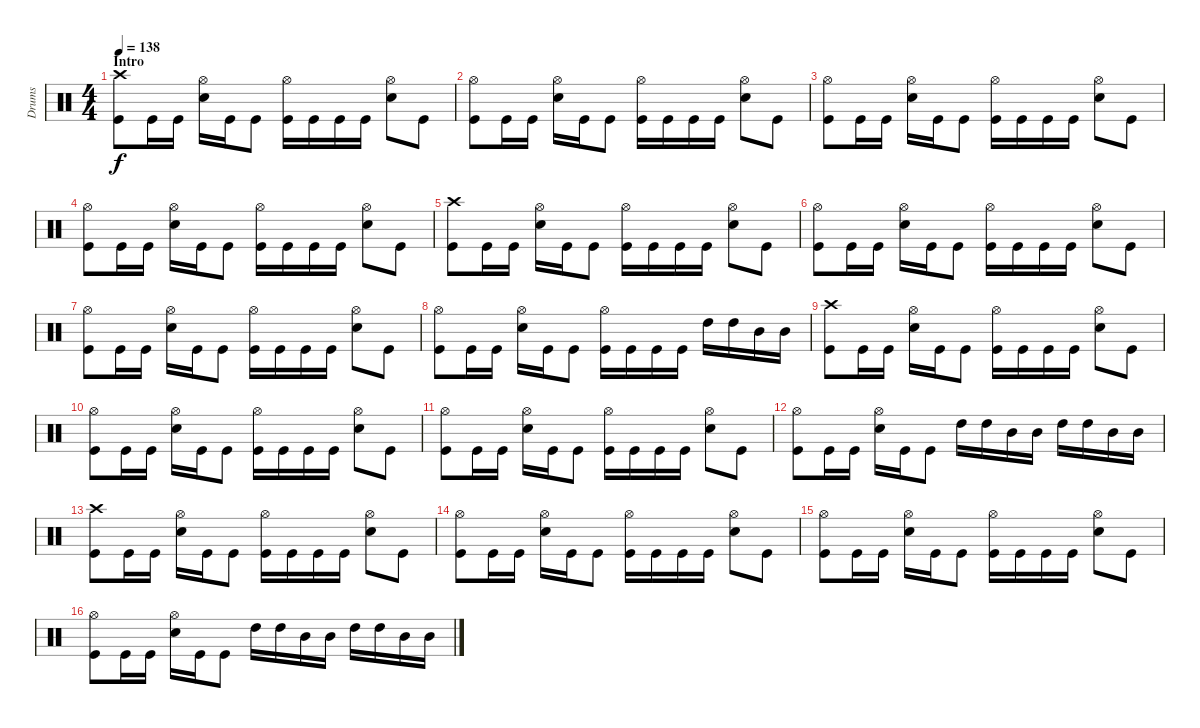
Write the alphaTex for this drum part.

\track ("Drums" "Drums") {instrument percussion}
\staff {score}
\articulation defaults
\ts (4 4)
\section ("" "Intro ")
\tempo 138
\clef neutral
\ks c
("Crash high (hit)" "Kick (hit)").8{dy f} "Kick (hit)".16 "Kick (hit)".16 ("Hi-Hat (open)" "Electric Snare (hit)").16 "Kick (hit)".16 "Kick (hit)".8 ("Hi-Hat (open)" "Kick (hit)").16 "Kick (hit)".16 "Kick (hit)".16 "Kick (hit)".16 ("Hi-Hat (open)" "Electric Snare (hit)").8 "Kick (hit)".8 |
("Hi-Hat (open)" "Kick (hit)").8 "Kick (hit)".16 "Kick (hit)".16 ("Hi-Hat (open)" "Electric Snare (hit)").16 "Kick (hit)".16 "Kick (hit)".8 ("Hi-Hat (open)" "Kick (hit)").16 "Kick (hit)".16 "Kick (hit)".16 "Kick (hit)".16 ("Hi-Hat (open)" "Electric Snare (hit)").8 "Kick (hit)".8 |
("Hi-Hat (open)" "Kick (hit)").8 "Kick (hit)".16 "Kick (hit)".16 ("Hi-Hat (open)" "Electric Snare (hit)").16 "Kick (hit)".16 "Kick (hit)".8 ("Hi-Hat (open)" "Kick (hit)").16 "Kick (hit)".16 "Kick (hit)".16 "Kick (hit)".16 ("Hi-Hat (open)" "Electric Snare (hit)").8 "Kick (hit)".8 |
("Hi-Hat (open)" "Kick (hit)").8 "Kick (hit)".16 "Kick (hit)".16 ("Hi-Hat (open)" "Electric Snare (hit)").16 "Kick (hit)".16 "Kick (hit)".8 ("Hi-Hat (open)" "Kick (hit)").16 "Kick (hit)".16 "Kick (hit)".16 "Kick (hit)".16 ("Hi-Hat (open)" "Electric Snare (hit)").8 "Kick (hit)".8 |
("Crash high (hit)" "Kick (hit)").8 "Kick (hit)".16 "Kick (hit)".16 ("Hi-Hat (open)" "Electric Snare (hit)").16 "Kick (hit)".16 "Kick (hit)".8 ("Hi-Hat (open)" "Kick (hit)").16 "Kick (hit)".16 "Kick (hit)".16 "Kick (hit)".16 ("Hi-Hat (open)" "Electric Snare (hit)").8 "Kick (hit)".8 |
("Hi-Hat (open)" "Kick (hit)").8 "Kick (hit)".16 "Kick (hit)".16 ("Hi-Hat (open)" "Electric Snare (hit)").16 "Kick (hit)".16 "Kick (hit)".8 ("Hi-Hat (open)" "Kick (hit)").16 "Kick (hit)".16 "Kick (hit)".16 "Kick (hit)".16 ("Hi-Hat (open)" "Electric Snare (hit)").8 "Kick (hit)".8 |
("Hi-Hat (open)" "Kick (hit)").8 "Kick (hit)".16 "Kick (hit)".16 ("Hi-Hat (open)" "Electric Snare (hit)").16 "Kick (hit)".16 "Kick (hit)".8 ("Hi-Hat (open)" "Kick (hit)").16 "Kick (hit)".16 "Kick (hit)".16 "Kick (hit)".16 ("Hi-Hat (open)" "Electric Snare (hit)").8 "Kick (hit)".8 |
("Hi-Hat (open)" "Kick (hit)").8 "Kick (hit)".16 "Kick (hit)".16 ("Hi-Hat (open)" "Electric Snare (hit)").16 "Kick (hit)".16 "Kick (hit)".8 ("Hi-Hat (open)" "Kick (hit)").16 "Kick (hit)".16 "Kick (hit)".16 "Kick (hit)".16 "High Tom (hit)".16 "High Tom (hit)".16 "Mid Tom (hit)".16 "Mid Tom (hit)".16 |
("Crash high (hit)" "Kick (hit)").8 "Kick (hit)".16 "Kick (hit)".16 ("Hi-Hat (open)" "Electric Snare (hit)").16 "Kick (hit)".16 "Kick (hit)".8 ("Hi-Hat (open)" "Kick (hit)").16 "Kick (hit)".16 "Kick (hit)".16 "Kick (hit)".16 ("Hi-Hat (open)" "Electric Snare (hit)").8 "Kick (hit)".8 |
("Hi-Hat (open)" "Kick (hit)").8 "Kick (hit)".16 "Kick (hit)".16 ("Hi-Hat (open)" "Electric Snare (hit)").16 "Kick (hit)".16 "Kick (hit)".8 ("Hi-Hat (open)" "Kick (hit)").16 "Kick (hit)".16 "Kick (hit)".16 "Kick (hit)".16 ("Hi-Hat (open)" "Electric Snare (hit)").8 "Kick (hit)".8 |
("Hi-Hat (open)" "Kick (hit)").8 "Kick (hit)".16 "Kick (hit)".16 ("Hi-Hat (open)" "Electric Snare (hit)").16 "Kick (hit)".16 "Kick (hit)".8 ("Hi-Hat (open)" "Kick (hit)").16 "Kick (hit)".16 "Kick (hit)".16 "Kick (hit)".16 ("Hi-Hat (open)" "Electric Snare (hit)").8 "Kick (hit)".8 |
("Hi-Hat (open)" "Kick (hit)").8 "Kick (hit)".16 "Kick (hit)".16 ("Hi-Hat (open)" "Electric Snare (hit)").16 "Kick (hit)".16 "Kick (hit)".8 "High Tom (hit)".16 "High Tom (hit)".16 "Mid Tom (hit)".16 "Mid Tom (hit)".16 "High Tom (hit)".16 "High Tom (hit)".16 "Mid Tom (hit)".16 "Mid Tom (hit)".16 |
("Crash high (hit)" "Kick (hit)").8 "Kick (hit)".16 "Kick (hit)".16 ("Hi-Hat (open)" "Electric Snare (hit)").16 "Kick (hit)".16 "Kick (hit)".8 ("Hi-Hat (open)" "Kick (hit)").16 "Kick (hit)".16 "Kick (hit)".16 "Kick (hit)".16 ("Hi-Hat (open)" "Electric Snare (hit)").8 "Kick (hit)".8 |
("Hi-Hat (open)" "Kick (hit)").8 "Kick (hit)".16 "Kick (hit)".16 ("Hi-Hat (open)" "Electric Snare (hit)").16 "Kick (hit)".16 "Kick (hit)".8 ("Hi-Hat (open)" "Kick (hit)").16 "Kick (hit)".16 "Kick (hit)".16 "Kick (hit)".16 ("Hi-Hat (open)" "Electric Snare (hit)").8 "Kick (hit)".8 |
("Hi-Hat (open)" "Kick (hit)").8 "Kick (hit)".16 "Kick (hit)".16 ("Hi-Hat (open)" "Electric Snare (hit)").16 "Kick (hit)".16 "Kick (hit)".8 ("Hi-Hat (open)" "Kick (hit)").16 "Kick (hit)".16 "Kick (hit)".16 "Kick (hit)".16 ("Hi-Hat (open)" "Electric Snare (hit)").8 "Kick (hit)".8 |
("Hi-Hat (open)" "Kick (hit)").8 "Kick (hit)".16 "Kick (hit)".16 ("Hi-Hat (open)" "Electric Snare (hit)").16 "Kick (hit)".16 "Kick (hit)".8 "High Tom (hit)".16 "High Tom (hit)".16 "Mid Tom (hit)".16 "Mid Tom (hit)".16 "High Tom (hit)".16 "High Tom (hit)".16 "Mid Tom (hit)".16 "Mid Tom (hit)".16
